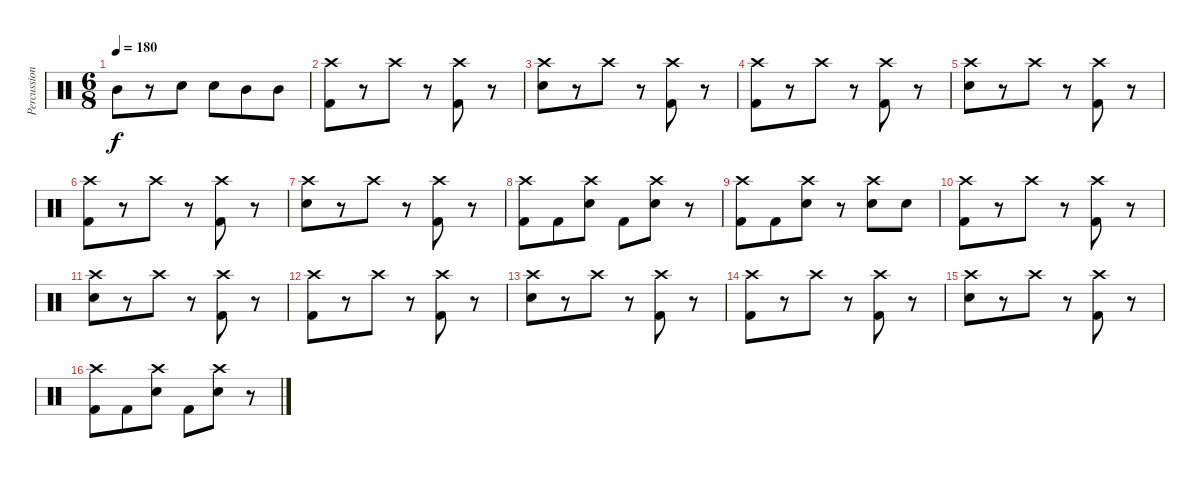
\track ("Percussion" "Percussion") {instrument percussion}
\staff {score}
\articulation defaults
\ts (6 8)
\tempo 180
\clef neutral
\ks c "Mid Tom (hit)".8{dy f}
r.8 "Electric Snare (hit)".8 "Electric Snare (hit)".8 "Mid Tom (hit)".8 "Mid Tom (hit)".8 |
("Crash high (hit)" "Kick (hit) 2").8 r.8 "Crash high (hit)".8 r.8 ("Crash high (hit)" "Kick (hit) 2").8 r.8 |
("Crash high (hit)" "Electric Snare (hit)").8 r.8 "Crash high (hit)".8 r.8 ("Crash high (hit)" "Kick (hit) 2").8 r.8 |
("Crash high (hit)" "Kick (hit) 2").8 r.8 "Crash high (hit)".8 r.8 ("Crash high (hit)" "Kick (hit) 2").8 r.8 |
("Crash high (hit)" "Electric Snare (hit)").8 r.8 "Crash high (hit)".8 r.8 ("Crash high (hit)" "Kick (hit) 2").8 r.8 |
("Crash high (hit)" "Kick (hit) 2").8 r.8 "Crash high (hit)".8 r.8 ("Crash high (hit)" "Kick (hit) 2").8 r.8 |
("Crash high (hit)" "Electric Snare (hit)").8 r.8 "Crash high (hit)".8 r.8 ("Crash high (hit)" "Kick (hit) 2").8 r.8 |
("Crash high (hit)" "Kick (hit) 2").8 "Kick (hit) 2".8 ("Crash high (hit)" "Electric Snare (hit)").8 "Kick (hit) 2".8 ("Crash high (hit)" "Electric Snare (hit)").8 r.8 |
("Crash high (hit)" "Kick (hit) 2").8 "Kick (hit) 2".8 ("Crash high (hit)" "Electric Snare (hit)").8 r.8 ("Crash high (hit)" "Electric Snare (hit)").8 "Electric Snare (hit)".8 |
("Crash high (hit)" "Kick (hit) 2").8 r.8 "Crash high (hit)".8 r.8 ("Crash high (hit)" "Kick (hit) 2").8 r.8 |
("Crash high (hit)" "Electric Snare (hit)").8 r.8 "Crash high (hit)".8 r.8 ("Crash high (hit)" "Kick (hit) 2").8 r.8 |
("Crash high (hit)" "Kick (hit) 2").8 r.8 "Crash high (hit)".8 r.8 ("Crash high (hit)" "Kick (hit) 2").8 r.8 |
("Crash high (hit)" "Electric Snare (hit)").8 r.8 "Crash high (hit)".8 r.8 ("Crash high (hit)" "Kick (hit) 2").8 r.8 |
("Crash high (hit)" "Kick (hit) 2").8 r.8 "Crash high (hit)".8 r.8 ("Crash high (hit)" "Kick (hit) 2").8 r.8 |
("Crash high (hit)" "Electric Snare (hit)").8 r.8 "Crash high (hit)".8 r.8 ("Crash high (hit)" "Kick (hit) 2").8 r.8 |
("Crash high (hit)" "Kick (hit) 2").8 "Kick (hit) 2".8 ("Crash high (hit)" "Electric Snare (hit)").8 "Kick (hit) 2".8 ("Crash high (hit)" "Electric Snare (hit)").8 r.8
